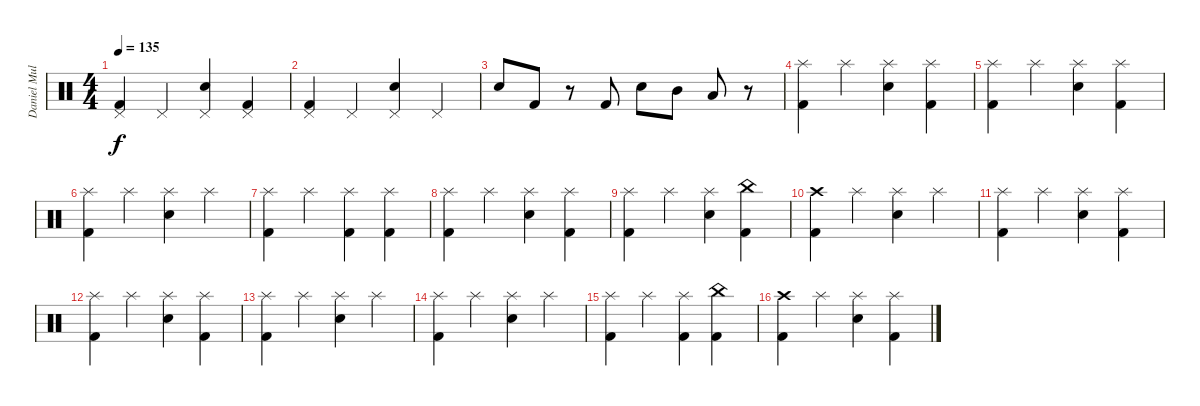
\track ("Daniel Mullback" "Daniel Mul") {instrument percussion}
\staff {score}
\articulation defaults
\ts (4 4)
\tempo 135
\clef neutral
\ks c
("Pedal Hi-Hat (hit)" "Kick (hit) 2").4{dy f} "Pedal Hi-Hat (hit)".4 ("Pedal Hi-Hat (hit)" "Snare (hit) 2").4 ("Pedal Hi-Hat (hit)" "Kick (hit) 2").4 |
("Pedal Hi-Hat (hit)" "Kick (hit) 2").4 "Pedal Hi-Hat (hit)".4 ("Pedal Hi-Hat (hit)" "Snare (hit) 2").4 "Pedal Hi-Hat (hit)".4 |
"Snare (hit) 2".8 "Kick (hit) 2".8 r.8 "Kick (hit) 2".8 "Snare (hit) 2".8 "Mid Tom (hit)".8 "Low Tom (hit)".8 r.8 |
("Splash (hit)" "Kick (hit) 2").4 "Splash (hit)".4 ("Splash (hit)" "Snare (hit) 2").4 ("Splash (hit)" "Kick (hit) 2").4 |
("Splash (hit)" "Kick (hit) 2").4 "Splash (hit)".4 ("Splash (hit)" "Snare (hit) 2").4 ("Splash (hit)" "Kick (hit) 2").4 |
("Splash (hit)" "Kick (hit) 2").4 "Splash (hit)".4 ("Splash (hit)" "Snare (hit) 2").4 "Splash (hit)".4 |
("Splash (hit)" "Kick (hit) 2").4 "Splash (hit)".4 ("Splash (hit)" "Kick (hit) 2").4 ("Splash (hit)" "Kick (hit) 2").4 |
("Splash (hit)" "Kick (hit) 2").4 "Splash (hit)".4 ("Splash (hit)" "Snare (hit) 2").4 ("Splash (hit)" "Kick (hit) 2").4 |
("Splash (hit)" "Kick (hit) 2").4 "Splash (hit)".4 ("Splash (hit)" "Snare (hit) 2").4 ("China (hit)" "Kick (hit) 2").4 |
("Crash high (hit)" "Kick (hit) 2").4 "Splash (hit)".4 ("Splash (hit)" "Snare (hit) 2").4 "Splash (hit)".4 |
("Splash (hit)" "Kick (hit) 2").4 "Splash (hit)".4 ("Splash (hit)" "Snare (hit) 2").4 ("Splash (hit)" "Kick (hit) 2").4 |
("Splash (hit)" "Kick (hit) 2").4 "Splash (hit)".4 ("Splash (hit)" "Snare (hit) 2").4 ("Splash (hit)" "Kick (hit) 2").4 |
("Splash (hit)" "Kick (hit) 2").4 "Splash (hit)".4 ("Splash (hit)" "Snare (hit) 2").4 "Splash (hit)".4 |
("Splash (hit)" "Kick (hit) 2").4 "Splash (hit)".4 ("Splash (hit)" "Snare (hit) 2").4 "Splash (hit)".4 |
("Splash (hit)" "Kick (hit) 2").4 "Splash (hit)".4 ("Splash (hit)" "Kick (hit) 2").4 ("China (hit)" "Kick (hit) 2").4 |
("Crash high (hit)" "Kick (hit) 2").4 "Splash (hit)".4 ("Splash (hit)" "Snare (hit) 2").4 ("Splash (hit)" "Kick (hit) 2").4
